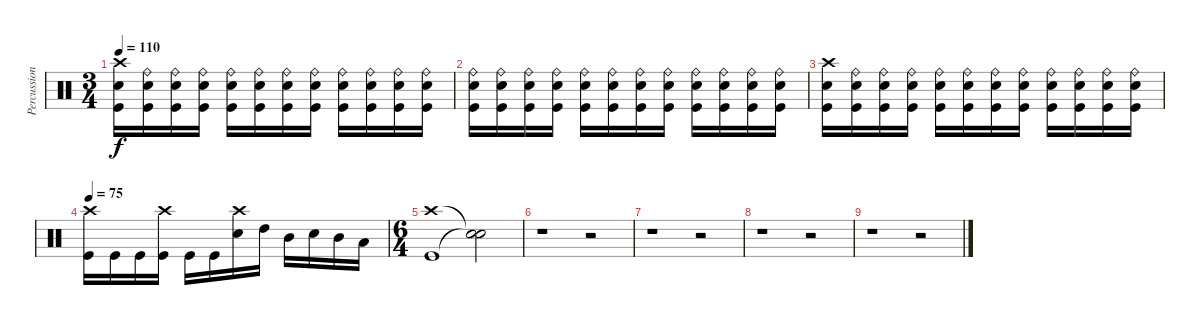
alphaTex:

\track ("Percussion" "Percussion") {instrument percussion}
\staff {score}
\articulation defaults
\ts (3 4)
\tempo 110
\clef neutral
\ks c
("Crash high (hit)" "Electric Snare (hit)" "Kick (hit)").16{dy f} ("Ride (bell)" "Electric Snare (hit)" "Kick (hit)").16 ("Ride (bell)" "Electric Snare (hit)" "Kick (hit)").16 ("Ride (bell)" "Electric Snare (hit)" "Kick (hit)").16 ("Ride (bell)" "Electric Snare (hit)" "Kick (hit)").16 ("Ride (bell)" "Electric Snare (hit)" "Kick (hit)").16 ("Ride (bell)" "Electric Snare (hit)" "Kick (hit)").16 ("Ride (bell)" "Electric Snare (hit)" "Kick (hit)").16 ("Ride (bell)" "Electric Snare (hit)" "Kick (hit)").16 ("Ride (bell)" "Electric Snare (hit)" "Kick (hit)").16 ("Ride (bell)" "Electric Snare (hit)" "Kick (hit)").16 ("Ride (bell)" "Electric Snare (hit)" "Kick (hit)").16 |
("Ride (bell)" "Electric Snare (hit)" "Kick (hit)").16 ("Ride (bell)" "Electric Snare (hit)" "Kick (hit)").16 ("Ride (bell)" "Electric Snare (hit)" "Kick (hit)").16 ("Ride (bell)" "Electric Snare (hit)" "Kick (hit)").16 ("Ride (bell)" "Electric Snare (hit)" "Kick (hit)").16 ("Ride (bell)" "Electric Snare (hit)" "Kick (hit)").16 ("Ride (bell)" "Electric Snare (hit)" "Kick (hit)").16 ("Ride (bell)" "Electric Snare (hit)" "Kick (hit)").16 ("Ride (bell)" "Electric Snare (hit)" "Kick (hit)").16 ("Ride (bell)" "Electric Snare (hit)" "Kick (hit)").16 ("Ride (bell)" "Electric Snare (hit)" "Kick (hit)").16 ("Ride (bell)" "Electric Snare (hit)" "Kick (hit)").16 |
("Crash high (hit)" "Electric Snare (hit)" "Kick (hit)").16 ("Ride (bell)" "Electric Snare (hit)" "Kick (hit)").16 ("Ride (bell)" "Electric Snare (hit)" "Kick (hit)").16 ("Ride (bell)" "Electric Snare (hit)" "Kick (hit)").16 ("Ride (bell)" "Electric Snare (hit)" "Kick (hit)").16 ("Ride (bell)" "Electric Snare (hit)" "Kick (hit)").16 ("Ride (bell)" "Electric Snare (hit)" "Kick (hit)").16 ("Ride (bell)" "Electric Snare (hit)" "Kick (hit)").16 ("Ride (bell)" "Electric Snare (hit)" "Kick (hit)").16 ("Ride (bell)" "Electric Snare (hit)" "Kick (hit)").16 ("Ride (bell)" "Electric Snare (hit)" "Kick (hit)").16 ("Ride (bell)" "Electric Snare (hit)" "Kick (hit)").16 |
\tempo 75
("Crash high (hit)" "Kick (hit)").16 "Kick (hit)".16 "Kick (hit)".16 ("Crash high (hit)" "Kick (hit)").16 "Kick (hit)".16 "Kick (hit)".16 ("Crash high (hit)" "Electric Snare (hit)").16 "High Tom (hit)".16 "Mid Tom (hit)".16 "Electric Snare (hit)".16 "Mid Tom (hit)".16 "Low Tom (hit)".16 |
\ts (6 4)
("Crash high (hit)" "Kick (hit)").1 ("Snare (hit)"{t} "Snare (hit)"{t}).2 |
r.1 r.2 |
r.1 r.2 |
r.1 r.2 |
r.1 r.2
